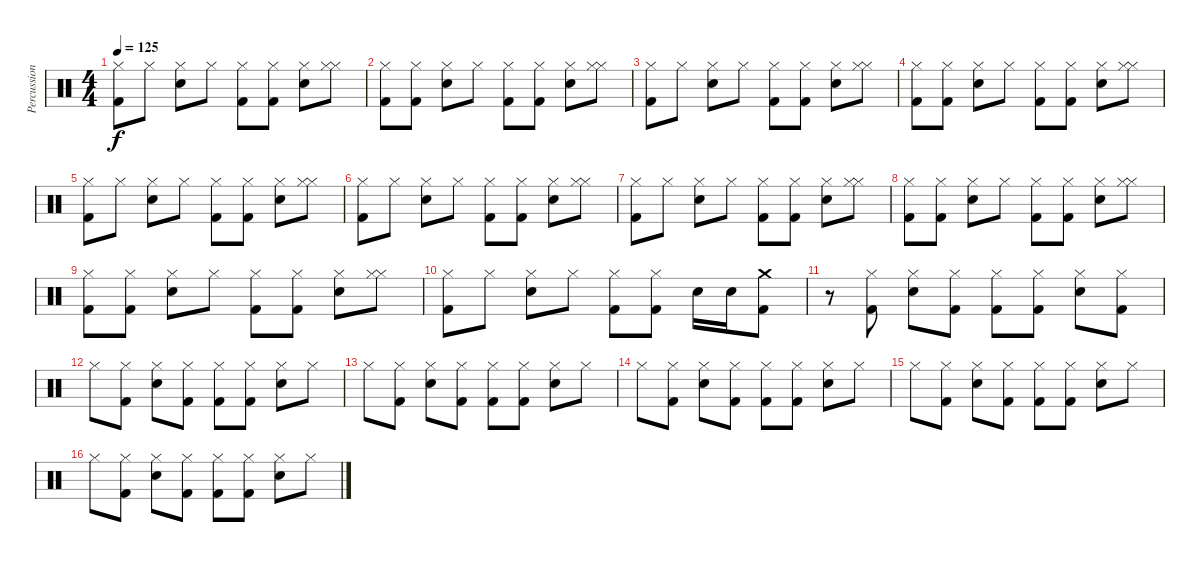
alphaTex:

\track ("Percussion" "Percussion") {instrument percussion}
\staff {score}
\articulation defaults
\ts (4 4)
\tempo 125
\clef neutral
\ks c
("Hi-Hat (closed)" "Kick (hit) 2").8{dy f} "Hi-Hat (closed)".8 ("Hi-Hat (closed)" "Electric Snare (hit)").8 "Hi-Hat (closed)".8 ("Hi-Hat (closed)" "Kick (hit) 2").8 ("Hi-Hat (closed)" "Kick (hit) 2").8 ("Hi-Hat (closed)" "Electric Snare (hit)").8 ("Hi-Hat (closed)" "Hi-Hat (closed)").8 |
("Hi-Hat (closed)" "Kick (hit) 2").8 ("Hi-Hat (closed)" "Kick (hit) 2").8 ("Hi-Hat (closed)" "Electric Snare (hit)").8 "Hi-Hat (closed)".8 ("Hi-Hat (closed)" "Kick (hit) 2").8 ("Hi-Hat (closed)" "Kick (hit) 2").8 ("Hi-Hat (closed)" "Electric Snare (hit)").8 ("Hi-Hat (closed)" "Hi-Hat (closed)").8 |
("Hi-Hat (closed)" "Kick (hit) 2").8 "Hi-Hat (closed)".8 ("Hi-Hat (closed)" "Electric Snare (hit)").8 "Hi-Hat (closed)".8 ("Hi-Hat (closed)" "Kick (hit) 2").8 ("Hi-Hat (closed)" "Kick (hit) 2").8 ("Hi-Hat (closed)" "Electric Snare (hit)").8 ("Hi-Hat (closed)" "Hi-Hat (closed)").8 |
("Hi-Hat (closed)" "Kick (hit) 2").8 ("Hi-Hat (closed)" "Kick (hit) 2").8 ("Hi-Hat (closed)" "Electric Snare (hit)").8 "Hi-Hat (closed)".8 ("Hi-Hat (closed)" "Kick (hit) 2").8 ("Hi-Hat (closed)" "Kick (hit) 2").8 ("Hi-Hat (closed)" "Electric Snare (hit)").8 ("Hi-Hat (closed)" "Hi-Hat (closed)").8 |
("Hi-Hat (closed)" "Kick (hit) 2").8 "Hi-Hat (closed)".8 ("Hi-Hat (closed)" "Electric Snare (hit)").8 "Hi-Hat (closed)".8 ("Hi-Hat (closed)" "Kick (hit) 2").8 ("Hi-Hat (closed)" "Kick (hit) 2").8 ("Hi-Hat (closed)" "Electric Snare (hit)").8 ("Hi-Hat (closed)" "Hi-Hat (closed)").8 |
("Hi-Hat (closed)" "Kick (hit) 2").8 "Hi-Hat (closed)".8 ("Hi-Hat (closed)" "Electric Snare (hit)").8 "Hi-Hat (closed)".8 ("Hi-Hat (closed)" "Kick (hit) 2").8 ("Hi-Hat (closed)" "Kick (hit) 2").8 ("Hi-Hat (closed)" "Electric Snare (hit)").8 ("Hi-Hat (closed)" "Hi-Hat (closed)").8 |
("Hi-Hat (closed)" "Kick (hit) 2").8 "Hi-Hat (closed)".8 ("Hi-Hat (closed)" "Electric Snare (hit)").8 "Hi-Hat (closed)".8 ("Hi-Hat (closed)" "Kick (hit) 2").8 ("Hi-Hat (closed)" "Kick (hit) 2").8 ("Hi-Hat (closed)" "Electric Snare (hit)").8 ("Hi-Hat (closed)" "Hi-Hat (closed)").8 |
("Hi-Hat (closed)" "Kick (hit) 2").8 ("Hi-Hat (closed)" "Kick (hit) 2").8 ("Hi-Hat (closed)" "Electric Snare (hit)").8 "Hi-Hat (closed)".8 ("Hi-Hat (closed)" "Kick (hit) 2").8 ("Hi-Hat (closed)" "Kick (hit) 2").8 ("Hi-Hat (closed)" "Electric Snare (hit)").8 ("Hi-Hat (closed)" "Hi-Hat (closed)").8 |
("Hi-Hat (closed)" "Kick (hit) 2").8 ("Hi-Hat (closed)" "Kick (hit) 2").8 ("Hi-Hat (closed)" "Electric Snare (hit)").8 "Hi-Hat (closed)".8 ("Hi-Hat (closed)" "Kick (hit) 2").8 ("Hi-Hat (closed)" "Kick (hit) 2").8 ("Hi-Hat (closed)" "Electric Snare (hit)").8 ("Hi-Hat (closed)" "Hi-Hat (closed)").8 |
("Hi-Hat (closed)" "Kick (hit) 2").8 "Hi-Hat (closed)".8 ("Hi-Hat (closed)" "Electric Snare (hit)").8 "Hi-Hat (closed)".8 ("Hi-Hat (closed)" "Kick (hit) 2").8 ("Hi-Hat (closed)" "Kick (hit) 2").8 "Electric Snare (hit)".16 "Electric Snare (hit)".16 ("Crash medium (hit)" "Kick (hit) 2").8 |
r.8 ("Hi-Hat (closed)" "Kick (hit) 2").8 ("Hi-Hat (closed)" "Electric Snare (hit)").8 ("Hi-Hat (closed)" "Kick (hit) 2").8 ("Hi-Hat (closed)" "Kick (hit) 2").8 ("Hi-Hat (closed)" "Kick (hit) 2").8 ("Hi-Hat (closed)" "Electric Snare (hit)").8 ("Hi-Hat (closed)" "Kick (hit) 2").8 |
"Hi-Hat (closed)".8 ("Hi-Hat (closed)" "Kick (hit) 2").8 ("Hi-Hat (closed)" "Electric Snare (hit)").8 ("Hi-Hat (closed)" "Kick (hit) 2").8 ("Hi-Hat (closed)" "Kick (hit) 2").8 ("Hi-Hat (closed)" "Kick (hit) 2").8 ("Hi-Hat (closed)" "Electric Snare (hit)").8 "Hi-Hat (closed)".8 |
"Hi-Hat (closed)".8 ("Hi-Hat (closed)" "Kick (hit) 2").8 ("Hi-Hat (closed)" "Electric Snare (hit)").8 ("Hi-Hat (closed)" "Kick (hit) 2").8 ("Hi-Hat (closed)" "Kick (hit) 2").8 ("Hi-Hat (closed)" "Kick (hit) 2").8 ("Hi-Hat (closed)" "Electric Snare (hit)").8 "Hi-Hat (closed)".8 |
"Hi-Hat (closed)".8 ("Hi-Hat (closed)" "Kick (hit) 2").8 ("Hi-Hat (closed)" "Electric Snare (hit)").8 ("Hi-Hat (closed)" "Kick (hit) 2").8 ("Hi-Hat (closed)" "Kick (hit) 2").8 ("Hi-Hat (closed)" "Kick (hit) 2").8 ("Hi-Hat (closed)" "Electric Snare (hit)").8 "Hi-Hat (closed)".8 |
"Hi-Hat (closed)".8 ("Hi-Hat (closed)" "Kick (hit) 2").8 ("Hi-Hat (closed)" "Electric Snare (hit)").8 ("Hi-Hat (closed)" "Kick (hit) 2").8 ("Hi-Hat (closed)" "Kick (hit) 2").8 ("Hi-Hat (closed)" "Kick (hit) 2").8 ("Hi-Hat (closed)" "Electric Snare (hit)").8 "Hi-Hat (closed)".8 |
"Hi-Hat (closed)".8 ("Hi-Hat (closed)" "Kick (hit) 2").8 ("Hi-Hat (closed)" "Electric Snare (hit)").8 ("Hi-Hat (closed)" "Kick (hit) 2").8 ("Hi-Hat (closed)" "Kick (hit) 2").8 ("Hi-Hat (closed)" "Kick (hit) 2").8 ("Hi-Hat (closed)" "Electric Snare (hit)").8 "Hi-Hat (closed)".8
